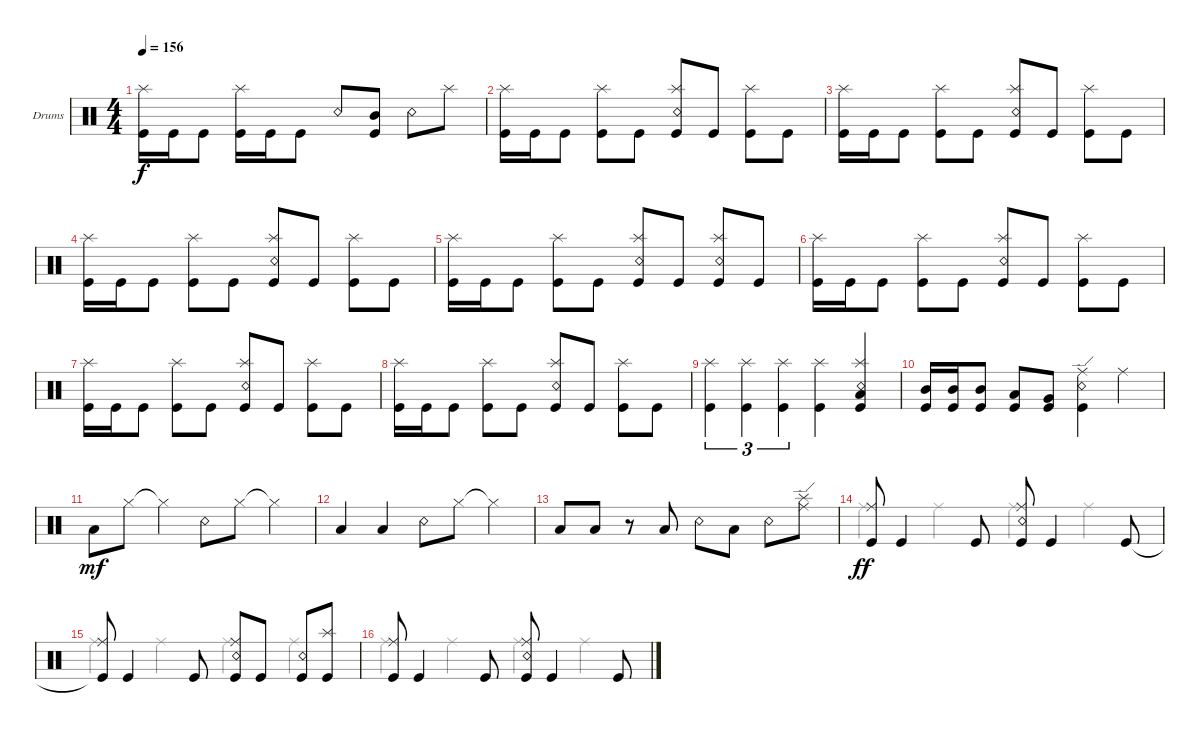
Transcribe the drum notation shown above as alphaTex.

\defaultSystemsLayout 4
\bracketExtendMode groupsimilarinstruments
\firstSystemTrackNameOrientation horizontal
\otherSystemsTrackNameOrientation horizontal
\track ("Drumkit" "Drums") {instrument percussion}
\staff {score}
\articulation defaults
\voice
\ts (4 4)
\tempo 156
\clef neutral
\ks c
("Kick (hit)" "Splash (hit)").16{dy f} "Kick (hit)".16 "Kick (hit)".8 ("Kick (hit)" "Splash (hit)").16 "Kick (hit)".16 "Kick (hit)".8 "Snare (rim shot)".8 ("Kick (hit)" "Mid Tom (hit)").8 "Snare (rim shot)".8 "Splash (hit)".8 |
("Kick (hit)" "Splash (hit)").16 "Kick (hit)".16 "Kick (hit)".8 ("Kick (hit)" "Splash (hit)").8 "Kick (hit)".8 ("Kick (hit)" "Snare (rim shot)" "Splash (hit)").8 "Kick (hit)".8 ("Kick (hit)" "Splash (hit)").8 "Kick (hit)".8 |
("Kick (hit)" "Splash (hit)").16 "Kick (hit)".16 "Kick (hit)".8 ("Kick (hit)" "Splash (hit)").8 "Kick (hit)".8 ("Kick (hit)" "Snare (rim shot)" "Splash (hit)").8 "Kick (hit)".8 ("Kick (hit)" "Splash (hit)").8 "Kick (hit)".8 |
("Kick (hit)" "Splash (hit)").16 "Kick (hit)".16 "Kick (hit)".8 ("Kick (hit)" "Splash (hit)").8 "Kick (hit)".8 ("Kick (hit)" "Snare (rim shot)" "Splash (hit)").8 "Kick (hit)".8 ("Kick (hit)" "Splash (hit)").8 "Kick (hit)".8 |
("Kick (hit)" "Splash (hit)").16 "Kick (hit)".16 "Kick (hit)".8 ("Kick (hit)" "Splash (hit)").8 "Kick (hit)".8 ("Kick (hit)" "Snare (rim shot)" "Splash (hit)").8 "Kick (hit)".8 ("Kick (hit)" "Snare (rim shot)" "Splash (hit)").8 "Kick (hit)".8 |
("Kick (hit)" "Splash (hit)").16 "Kick (hit)".16 "Kick (hit)".8 ("Kick (hit)" "Splash (hit)").8 "Kick (hit)".8 ("Kick (hit)" "Snare (rim shot)" "Splash (hit)").8 "Kick (hit)".8 ("Kick (hit)" "Splash (hit)").8 "Kick (hit)".8 |
("Kick (hit)" "Splash (hit)").16 "Kick (hit)".16 "Kick (hit)".8 ("Kick (hit)" "Splash (hit)").8 "Kick (hit)".8 ("Kick (hit)" "Snare (rim shot)" "Splash (hit)").8 "Kick (hit)".8 ("Kick (hit)" "Splash (hit)").8 "Kick (hit)".8 |
("Kick (hit)" "Splash (hit)").16 "Kick (hit)".16 "Kick (hit)".8 ("Kick (hit)" "Splash (hit)").8 "Kick (hit)".8 ("Kick (hit)" "Snare (rim shot)" "Splash (hit)").8 "Kick (hit)".8 ("Kick (hit)" "Splash (hit)").8 "Kick (hit)".8 |
("Kick (hit)" "Splash (hit)").4{tu (3 2)} ("Kick (hit)" "Splash (hit)").4{tu (3 2)} ("Kick (hit)" "Splash (hit)").4{tu (3 2)} ("Kick (hit)" "Splash (hit)").4 ("Kick (hit)" "Splash (hit)" "Snare (rim shot)" "Low Tom (hit)").4 |
("Kick (hit)" "Mid Tom (hit)").16 ("Mid Tom (hit)" "Kick (hit)").16 ("Kick (hit)" "Mid Tom (hit)").8 ("Kick (hit)" "Low Tom (hit)").8 ("Kick (hit)" "Very Low Tom (hit)").8 ("Snare (rim shot)" "Ride (edge)" "Kick (hit)").4 "Ride (middle)".4 |
"Low Tom (hit)".8{dy mf} "Hi-Hat (closed)".8 "Hi-Hat (closed)"{t}.4 "Snare (rim shot)".8 "Hi-Hat (closed)".8 "Hi-Hat (closed)"{t}.4 |
"Low Tom (hit)".4 "Low Tom (hit)".4 "Snare (rim shot)".8 "Hi-Hat (closed)".8 "Hi-Hat (closed)"{t}.4 |
"Low Tom (hit)".8 "Low Tom (hit)".8 r.8 "Low Tom (hit)".8 "Snare (rim shot)".8 "Low Tom (hit)".8 "Snare (rim shot)".8 ("Splash (hit)" "Ride (edge)").8 |
("Kick (hit)" "Ride (middle)").8{dy ff} "Kick (hit)".4 "Kick (hit)".8 ("Kick (hit)" "Snare (rim shot)" "Ride (middle)").8 "Kick (hit)".4 "Kick (hit)".8 |
("Kick (hit)"{t} "Ride (middle)").8 "Kick (hit)".4 "Kick (hit)".8 ("Kick (hit)" "Snare (rim shot)" "Ride (middle)").8 "Kick (hit)".8 ("Snare (rim shot)" "Kick (hit)").8 ("Splash (hit)" "Kick (hit)").8 |
("Kick (hit)" "Ride (middle)").8 "Kick (hit)".4 "Kick (hit)".8 ("Kick (hit)" "Snare (rim shot)" "Ride (middle)").8 "Kick (hit)".4 "Kick (hit)".8
\voice
\clef neutral
\ottava regular
\simile none
\ks c
|
|
|
|
|
|
|
|
|
|
|
|
|
"Ride (middle)".4 "Ride (middle)".4 "Ride (middle)".4 "Ride (middle)".4 |
"Ride (middle)".4 "Ride (middle)".4 "Ride (middle)".4 "Ride (middle)".4 |
"Ride (middle)".4 "Ride (middle)".4 "Ride (middle)".4 "Ride (middle)".4
